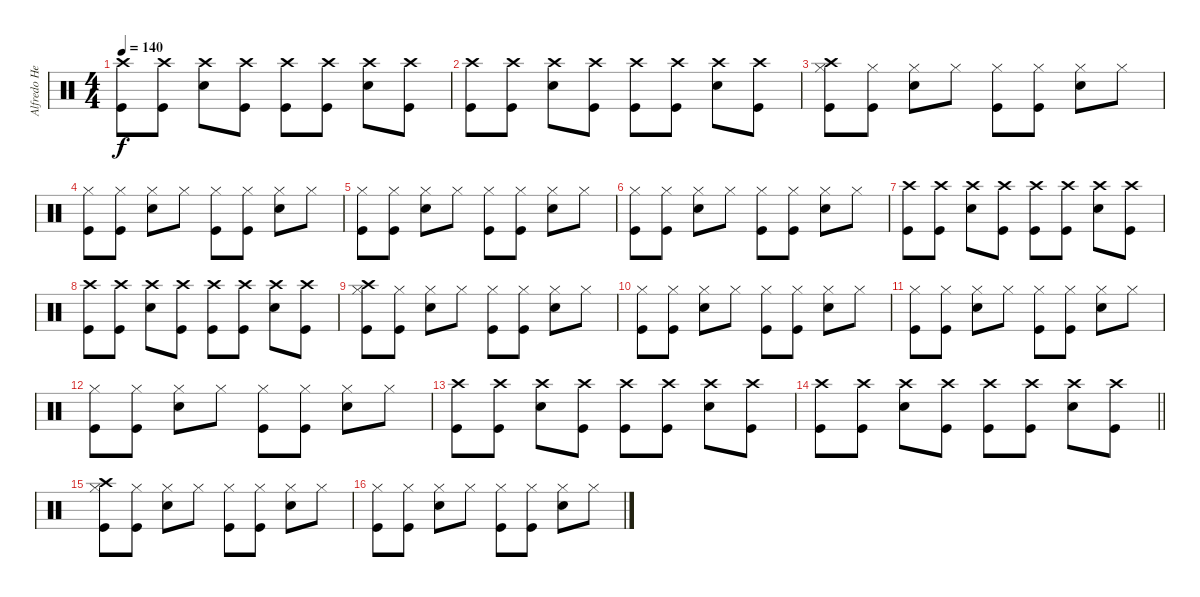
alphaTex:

\track ("Alfredo Hernandez - Percussion" "Alfredo He") {instrument percussion}
\staff {score}
\articulation defaults
\ts (4 4)
\tempo 140
\clef neutral
\ks c
("Kick (hit)" "Crash high (hit)").8{dy f} ("Kick (hit)" "Crash high (hit)").8 ("Snare (hit) 2" "Crash high (hit)").8 ("Kick (hit)" "Crash high (hit)").8 ("Kick (hit)" "Crash high (hit)").8 ("Kick (hit)" "Crash high (hit)").8 ("Snare (hit) 2" "Crash high (hit)").8 ("Kick (hit)" "Crash high (hit)").8 |
("Kick (hit)" "Crash high (hit)").8 ("Kick (hit)" "Crash high (hit)").8 ("Snare (hit) 2" "Crash high (hit)").8 ("Kick (hit)" "Crash high (hit)").8 ("Kick (hit)" "Crash high (hit)").8 ("Kick (hit)" "Crash high (hit)").8 ("Snare (hit) 2" "Crash high (hit)").8 ("Kick (hit)" "Crash high (hit)").8 |
("Kick (hit)" "Hi-Hat (closed)" "Crash high (hit)").8 ("Kick (hit)" "Hi-Hat (closed)").8 ("Snare (hit) 2" "Hi-Hat (closed)").8 "Hi-Hat (closed)".8 ("Kick (hit)" "Hi-Hat (closed)").8 ("Kick (hit)" "Hi-Hat (closed)").8 ("Snare (hit) 2" "Hi-Hat (closed)").8 "Hi-Hat (closed)".8 |
("Kick (hit)" "Hi-Hat (closed)").8 ("Kick (hit)" "Hi-Hat (closed)").8 ("Snare (hit) 2" "Hi-Hat (closed)").8 "Hi-Hat (closed)".8 ("Kick (hit)" "Hi-Hat (closed)").8 ("Kick (hit)" "Hi-Hat (closed)").8 ("Snare (hit) 2" "Hi-Hat (closed)").8 "Hi-Hat (closed)".8 |
("Kick (hit)" "Hi-Hat (closed)").8 ("Kick (hit)" "Hi-Hat (closed)").8 ("Snare (hit) 2" "Hi-Hat (closed)").8 "Hi-Hat (closed)".8 ("Kick (hit)" "Hi-Hat (closed)").8 ("Kick (hit)" "Hi-Hat (closed)").8 ("Snare (hit) 2" "Hi-Hat (closed)").8 "Hi-Hat (closed)".8 |
("Kick (hit)" "Hi-Hat (closed)").8 ("Kick (hit)" "Hi-Hat (closed)").8 ("Snare (hit) 2" "Hi-Hat (closed)").8 "Hi-Hat (closed)".8 ("Kick (hit)" "Hi-Hat (closed)").8 ("Kick (hit)" "Hi-Hat (closed)").8 ("Snare (hit) 2" "Hi-Hat (closed)").8 "Hi-Hat (closed)".8 |
("Kick (hit)" "Crash high (hit)").8 ("Kick (hit)" "Crash high (hit)").8 ("Snare (hit) 2" "Crash high (hit)").8 ("Kick (hit)" "Crash high (hit)").8 ("Kick (hit)" "Crash high (hit)").8 ("Kick (hit)" "Crash high (hit)").8 ("Snare (hit) 2" "Crash high (hit)").8 ("Kick (hit)" "Crash high (hit)").8 |
("Kick (hit)" "Crash high (hit)").8 ("Kick (hit)" "Crash high (hit)").8 ("Snare (hit) 2" "Crash high (hit)").8 ("Kick (hit)" "Crash high (hit)").8 ("Kick (hit)" "Crash high (hit)").8 ("Kick (hit)" "Crash high (hit)").8 ("Snare (hit) 2" "Crash high (hit)").8 ("Kick (hit)" "Crash high (hit)").8 |
("Kick (hit)" "Hi-Hat (closed)" "Crash high (hit)").8 ("Kick (hit)" "Hi-Hat (closed)").8 ("Snare (hit) 2" "Hi-Hat (closed)").8 "Hi-Hat (closed)".8 ("Kick (hit)" "Hi-Hat (closed)").8 ("Kick (hit)" "Hi-Hat (closed)").8 ("Snare (hit) 2" "Hi-Hat (closed)").8 "Hi-Hat (closed)".8 |
("Kick (hit)" "Hi-Hat (closed)").8 ("Kick (hit)" "Hi-Hat (closed)").8 ("Snare (hit) 2" "Hi-Hat (closed)").8 "Hi-Hat (closed)".8 ("Kick (hit)" "Hi-Hat (closed)").8 ("Kick (hit)" "Hi-Hat (closed)").8 ("Snare (hit) 2" "Hi-Hat (closed)").8 "Hi-Hat (closed)".8 |
("Kick (hit)" "Hi-Hat (closed)").8 ("Kick (hit)" "Hi-Hat (closed)").8 ("Snare (hit) 2" "Hi-Hat (closed)").8 "Hi-Hat (closed)".8 ("Kick (hit)" "Hi-Hat (closed)").8 ("Kick (hit)" "Hi-Hat (closed)").8 ("Snare (hit) 2" "Hi-Hat (closed)").8 "Hi-Hat (closed)".8 |
("Kick (hit)" "Hi-Hat (closed)").8 ("Kick (hit)" "Hi-Hat (closed)").8 ("Snare (hit) 2" "Hi-Hat (closed)").8 "Hi-Hat (closed)".8 ("Kick (hit)" "Hi-Hat (closed)").8 ("Kick (hit)" "Hi-Hat (closed)").8 ("Snare (hit) 2" "Hi-Hat (closed)").8 "Hi-Hat (closed)".8 |
("Kick (hit)" "Crash high (hit)").8 ("Kick (hit)" "Crash high (hit)").8 ("Snare (hit) 2" "Crash high (hit)").8 ("Kick (hit)" "Crash high (hit)").8 ("Kick (hit)" "Crash high (hit)").8 ("Kick (hit)" "Crash high (hit)").8 ("Snare (hit) 2" "Crash high (hit)").8 ("Kick (hit)" "Crash high (hit)").8 |
\barLineRight lightlight
("Kick (hit)" "Crash high (hit)").8 ("Kick (hit)" "Crash high (hit)").8 ("Snare (hit) 2" "Crash high (hit)").8 ("Kick (hit)" "Crash high (hit)").8 ("Kick (hit)" "Crash high (hit)").8 ("Kick (hit)" "Crash high (hit)").8 ("Snare (hit) 2" "Crash high (hit)").8 ("Kick (hit)" "Crash high (hit)").8 |
("Kick (hit)" "Hi-Hat (closed)" "Crash high (hit)").8 ("Kick (hit)" "Hi-Hat (closed)").8 ("Snare (hit) 2" "Hi-Hat (closed)").8 "Hi-Hat (closed)".8 ("Kick (hit)" "Hi-Hat (closed)").8 ("Kick (hit)" "Hi-Hat (closed)").8 ("Snare (hit) 2" "Hi-Hat (closed)").8 "Hi-Hat (closed)".8 |
("Kick (hit)" "Hi-Hat (closed)").8 ("Kick (hit)" "Hi-Hat (closed)").8 ("Snare (hit) 2" "Hi-Hat (closed)").8 "Hi-Hat (closed)".8 ("Kick (hit)" "Hi-Hat (closed)").8 ("Kick (hit)" "Hi-Hat (closed)").8 ("Snare (hit) 2" "Hi-Hat (closed)").8 "Hi-Hat (closed)".8
